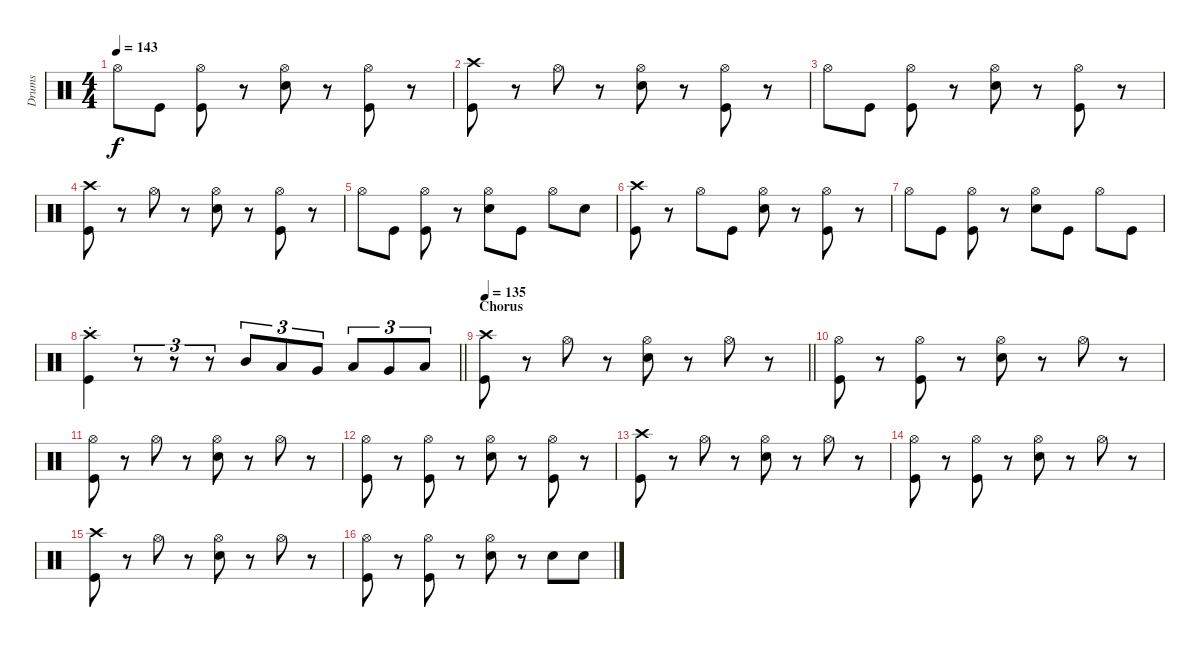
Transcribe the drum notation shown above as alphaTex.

\track ("Drums" "Drums") {instrument percussion}
\staff {score}
\articulation defaults
\ts (4 4)
\tempo 143
\clef neutral
\ks c "Hi-Hat (open)".8{dy f} "Kick (hit)".8
("Hi-Hat (open)" "Kick (hit)").8 r.8 ("Hi-Hat (open)" "Snare (hit) 2").8 r.8 ("Hi-Hat (open)" "Kick (hit)").8 r.8 |
("Crash high (hit)" "Kick (hit)").8 r.8 "Hi-Hat (open)".8 r.8 ("Hi-Hat (open)" "Snare (hit) 2").8 r.8 ("Hi-Hat (open)" "Kick (hit)").8 r.8 |
"Hi-Hat (open)".8 "Kick (hit)".8 ("Hi-Hat (open)" "Kick (hit)").8 r.8 ("Hi-Hat (open)" "Snare (hit) 2").8 r.8 ("Hi-Hat (open)" "Kick (hit)").8 r.8 |
("Crash high (hit)" "Kick (hit)").8 r.8 "Hi-Hat (open)".8 r.8 ("Hi-Hat (open)" "Snare (hit) 2").8 r.8 ("Hi-Hat (open)" "Kick (hit)").8 r.8 |
"Hi-Hat (open)".8 "Kick (hit)".8 ("Hi-Hat (open)" "Kick (hit)").8 r.8 ("Hi-Hat (open)" "Snare (hit) 2").8 "Kick (hit)".8 "Hi-Hat (open)".8 "Snare (hit) 2".8 |
("Crash high (hit)" "Kick (hit)").8 r.8 "Hi-Hat (open)".8 "Kick (hit)".8 ("Hi-Hat (open)" "Snare (hit) 2").8 r.8 ("Hi-Hat (open)" "Kick (hit)").8 r.8 |
"Hi-Hat (open)".8 "Kick (hit)".8 ("Hi-Hat (open)" "Kick (hit)").8 r.8 ("Hi-Hat (open)" "Snare (hit) 2").8 "Kick (hit)".8 "Hi-Hat (open)".8 "Kick (hit)".8 |
\barLineRight lightlight
("Crash high (hit)"{st} "Kick (hit)"{st}).4 r.8{tu (3 2)} r.8{tu (3 2)} r.8{tu (3 2)} "Mid Tom (hit)".8{tu (3 2)} "Low Tom (hit)".8{tu (3 2)} "Very Low Tom (hit)".8{tu (3 2)} "Low Tom (hit)".8{tu (3 2)} "Very Low Tom (hit)".8{tu (3 2)} "Low Floor Tom (hit)".8{tu (3 2)} |
\section ("" "Chorus")
\tempo 135
\barLineRight lightlight
("Crash high (hit)" "Kick (hit)").8 r.8 "Hi-Hat (open)".8 r.8 ("Hi-Hat (open)" "Snare (hit) 2").8 r.8 "Hi-Hat (open)".8 r.8 |
("Hi-Hat (open)" "Kick (hit)").8 r.8 ("Hi-Hat (open)" "Kick (hit)").8 r.8 ("Hi-Hat (open)" "Snare (hit) 2").8 r.8 "Hi-Hat (open)".8 r.8 |
("Hi-Hat (open)" "Kick (hit)").8 r.8 "Hi-Hat (open)".8 r.8 ("Hi-Hat (open)" "Snare (hit) 2").8 r.8 "Hi-Hat (open)".8 r.8 |
("Hi-Hat (open)" "Kick (hit)").8 r.8 ("Hi-Hat (open)" "Kick (hit)").8 r.8 ("Hi-Hat (open)" "Snare (hit) 2").8 r.8 ("Hi-Hat (open)" "Kick (hit)").8 r.8 |
("Crash high (hit)" "Kick (hit)").8 r.8 "Hi-Hat (open)".8 r.8 ("Hi-Hat (open)" "Snare (hit) 2").8 r.8 "Hi-Hat (open)".8 r.8 |
("Hi-Hat (open)" "Kick (hit)").8 r.8 ("Hi-Hat (open)" "Kick (hit)").8 r.8 ("Hi-Hat (open)" "Snare (hit) 2").8 r.8 "Hi-Hat (open)".8 r.8 |
("Crash high (hit)" "Kick (hit)").8 r.8 "Hi-Hat (open)".8 r.8 ("Hi-Hat (open)" "Snare (hit) 2").8 r.8 "Hi-Hat (open)".8 r.8 |
("Hi-Hat (open)" "Kick (hit)").8 r.8 ("Hi-Hat (open)" "Kick (hit)").8 r.8 ("Hi-Hat (open)" "Snare (hit) 2").8 r.8 "Snare (hit) 2".8 "Snare (hit) 2".8
